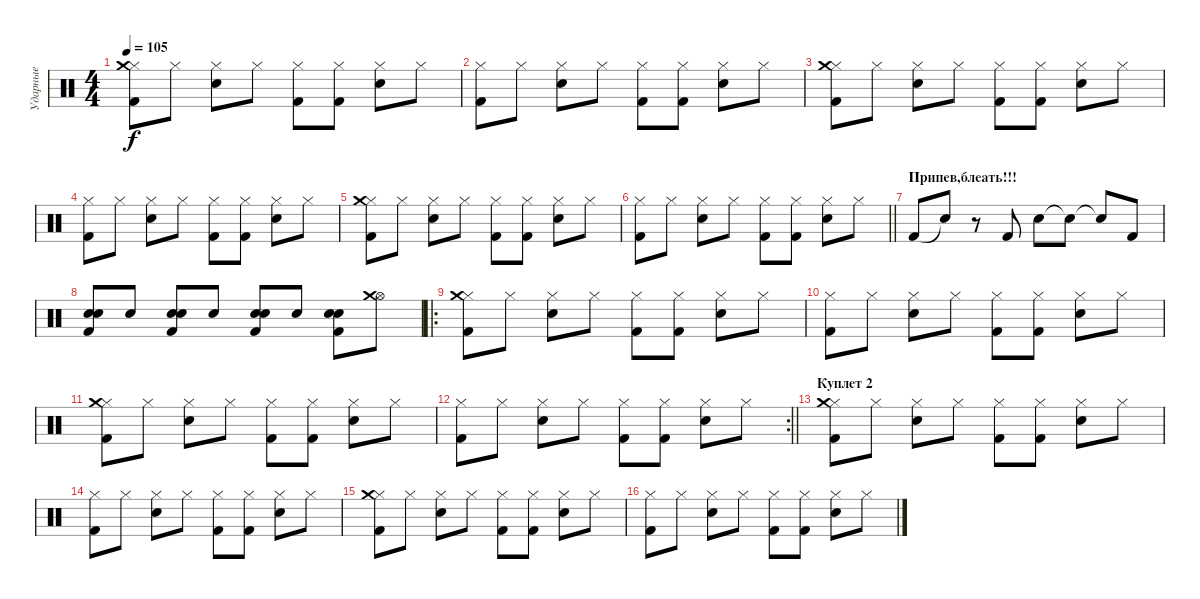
\track ("Ударные" "Ударные") {instrument percussion}
\staff {score}
\articulation defaults
\ts (4 4)
\tempo 105
\clef neutral
\ks c
("Hi-Hat (closed)" "Kick (hit) 2" "Crash medium (hit)").8{dy f} "Hi-Hat (closed)".8 ("Hi-Hat (closed)" "Electric Snare (hit)").8 "Hi-Hat (closed)".8 ("Hi-Hat (closed)" "Kick (hit) 2").8 ("Hi-Hat (closed)" "Kick (hit) 2").8 ("Hi-Hat (closed)" "Electric Snare (hit)").8 "Hi-Hat (closed)".8 |
("Hi-Hat (closed)" "Kick (hit) 2").8 "Hi-Hat (closed)".8 ("Hi-Hat (closed)" "Electric Snare (hit)").8 "Hi-Hat (closed)".8 ("Hi-Hat (closed)" "Kick (hit) 2").8 ("Hi-Hat (closed)" "Kick (hit) 2").8 ("Hi-Hat (closed)" "Electric Snare (hit)").8 "Hi-Hat (closed)".8 |
("Hi-Hat (closed)" "Kick (hit) 2" "Crash medium (hit)").8 "Hi-Hat (closed)".8 ("Hi-Hat (closed)" "Electric Snare (hit)").8 "Hi-Hat (closed)".8 ("Hi-Hat (closed)" "Kick (hit) 2").8 ("Hi-Hat (closed)" "Kick (hit) 2").8 ("Hi-Hat (closed)" "Electric Snare (hit)").8 "Hi-Hat (closed)".8 |
("Hi-Hat (closed)" "Kick (hit) 2").8 "Hi-Hat (closed)".8 ("Hi-Hat (closed)" "Electric Snare (hit)").8 "Hi-Hat (closed)".8 ("Hi-Hat (closed)" "Kick (hit) 2").8 ("Hi-Hat (closed)" "Kick (hit) 2").8 ("Hi-Hat (closed)" "Electric Snare (hit)").8 "Hi-Hat (closed)".8 |
("Hi-Hat (closed)" "Kick (hit) 2" "Crash medium (hit)").8 "Hi-Hat (closed)".8 ("Hi-Hat (closed)" "Electric Snare (hit)").8 "Hi-Hat (closed)".8 ("Hi-Hat (closed)" "Kick (hit) 2").8 ("Hi-Hat (closed)" "Kick (hit) 2").8 ("Hi-Hat (closed)" "Electric Snare (hit)").8 "Hi-Hat (closed)".8 |
\barLineRight lightlight
("Hi-Hat (closed)" "Kick (hit) 2").8 "Hi-Hat (closed)".8 ("Hi-Hat (closed)" "Electric Snare (hit)").8 "Hi-Hat (closed)".8 ("Hi-Hat (closed)" "Kick (hit) 2").8 ("Hi-Hat (closed)" "Kick (hit) 2").8 ("Hi-Hat (closed)" "Electric Snare (hit)").8 "Hi-Hat (closed)".8 |
\section ("" "Припев,блеать!!!")
"Kick (hit) 2".8 "Snare (hit)"{t}.8 r.8 "Kick (hit) 2".8 "Electric Snare (hit)".8 "Snare (hit)"{t}.8 "Snare (hit)"{t}.8 "Kick (hit) 2".8 |
("Electric Snare (hit)" "Kick (hit) 2" "Electric Snare (hit)").8 "Electric Snare (hit)".8 ("Electric Snare (hit)" "Kick (hit) 2" "Electric Snare (hit)").8 "Electric Snare (hit)".8 ("Electric Snare (hit)" "Kick (hit) 2" "Electric Snare (hit)").8 "Electric Snare (hit)".8 ("Electric Snare (hit)" "Kick (hit) 2" "Electric Snare (hit)").8 ("Hi-Hat (open)" "Crash medium (hit)").8 |
\ro
("Hi-Hat (closed)" "Kick (hit) 2" "Crash medium (hit)").8 "Hi-Hat (closed)".8 ("Hi-Hat (closed)" "Electric Snare (hit)").8 "Hi-Hat (closed)".8 ("Hi-Hat (closed)" "Kick (hit) 2").8 ("Hi-Hat (closed)" "Kick (hit) 2").8 ("Hi-Hat (closed)" "Electric Snare (hit)").8 "Hi-Hat (closed)".8 |
("Hi-Hat (closed)" "Kick (hit) 2").8 "Hi-Hat (closed)".8 ("Hi-Hat (closed)" "Electric Snare (hit)").8 "Hi-Hat (closed)".8 ("Hi-Hat (closed)" "Kick (hit) 2").8 ("Hi-Hat (closed)" "Kick (hit) 2").8 ("Hi-Hat (closed)" "Electric Snare (hit)").8 "Hi-Hat (closed)".8 |
("Hi-Hat (closed)" "Kick (hit) 2" "Crash medium (hit)").8 "Hi-Hat (closed)".8 ("Hi-Hat (closed)" "Electric Snare (hit)").8 "Hi-Hat (closed)".8 ("Hi-Hat (closed)" "Kick (hit) 2").8 ("Hi-Hat (closed)" "Kick (hit) 2").8 ("Hi-Hat (closed)" "Electric Snare (hit)").8 "Hi-Hat (closed)".8 |
\rc 2
\barLineRight lightlight
("Hi-Hat (closed)" "Kick (hit) 2").8 "Hi-Hat (closed)".8 ("Hi-Hat (closed)" "Electric Snare (hit)").8 "Hi-Hat (closed)".8 ("Hi-Hat (closed)" "Kick (hit) 2").8 ("Hi-Hat (closed)" "Kick (hit) 2").8 ("Hi-Hat (closed)" "Electric Snare (hit)").8 "Hi-Hat (closed)".8 |
\section ("" "Куплет 2")
("Hi-Hat (closed)" "Kick (hit) 2" "Crash medium (hit)").8 "Hi-Hat (closed)".8 ("Hi-Hat (closed)" "Electric Snare (hit)").8 "Hi-Hat (closed)".8 ("Hi-Hat (closed)" "Kick (hit) 2").8 ("Hi-Hat (closed)" "Kick (hit) 2").8 ("Hi-Hat (closed)" "Electric Snare (hit)").8 "Hi-Hat (closed)".8 |
("Hi-Hat (closed)" "Kick (hit) 2").8 "Hi-Hat (closed)".8 ("Hi-Hat (closed)" "Electric Snare (hit)").8 "Hi-Hat (closed)".8 ("Hi-Hat (closed)" "Kick (hit) 2").8 ("Hi-Hat (closed)" "Kick (hit) 2").8 ("Hi-Hat (closed)" "Electric Snare (hit)").8 "Hi-Hat (closed)".8 |
("Hi-Hat (closed)" "Kick (hit) 2" "Crash medium (hit)").8 "Hi-Hat (closed)".8 ("Hi-Hat (closed)" "Electric Snare (hit)").8 "Hi-Hat (closed)".8 ("Hi-Hat (closed)" "Kick (hit) 2").8 ("Hi-Hat (closed)" "Kick (hit) 2").8 ("Hi-Hat (closed)" "Electric Snare (hit)").8 "Hi-Hat (closed)".8 |
("Hi-Hat (closed)" "Kick (hit) 2").8 "Hi-Hat (closed)".8 ("Hi-Hat (closed)" "Electric Snare (hit)").8 "Hi-Hat (closed)".8 ("Hi-Hat (closed)" "Kick (hit) 2").8 ("Hi-Hat (closed)" "Kick (hit) 2").8 ("Hi-Hat (closed)" "Electric Snare (hit)").8 "Hi-Hat (closed)".8
